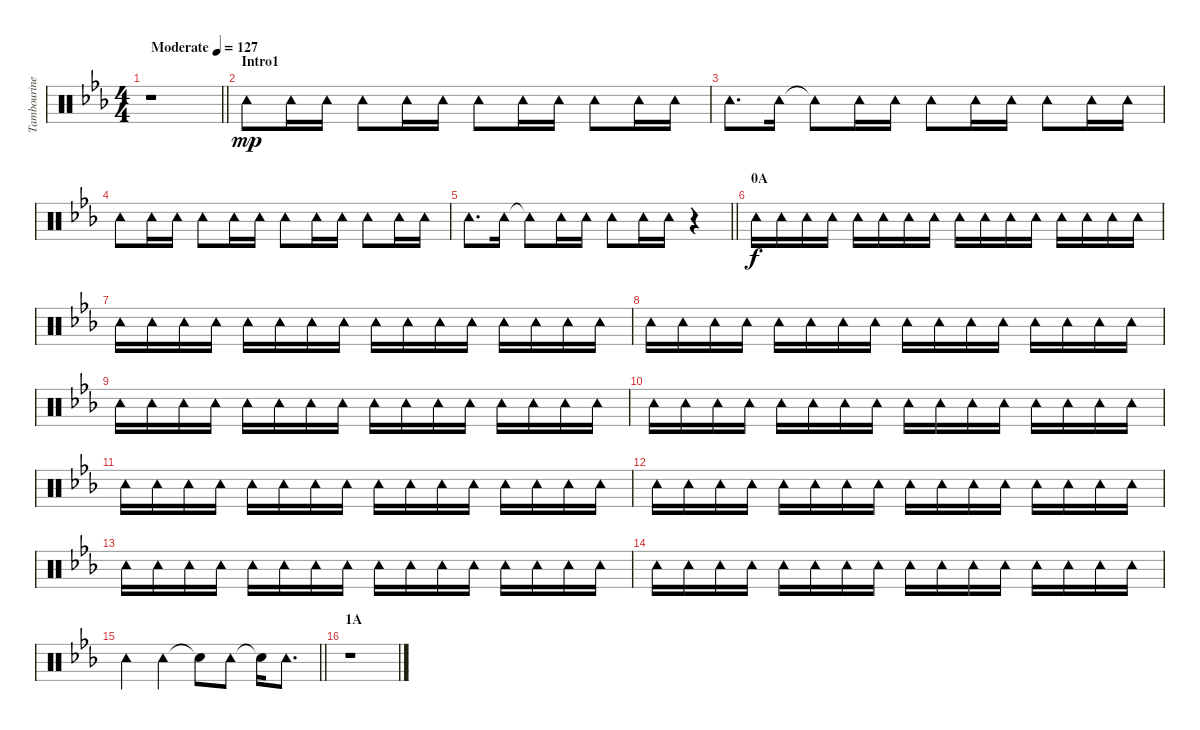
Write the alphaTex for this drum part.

\track ("Tambourine" "Tambourine") {instrument percussion}
\staff {score}
\articulation defaults
\ts (4 4)
\tempo (127 "Moderate")
\clef neutral
\barLineRight lightlight
\ks eb
r.1{dy mp} |
\section ("" "Intro1")
"Tambourine (hit)".8 "Tambourine (hit)".16 "Tambourine (hit)".16 "Tambourine (hit)".8 "Tambourine (hit)".16 "Tambourine (hit)".16 "Tambourine (hit)".8 "Tambourine (hit)".16 "Tambourine (hit)".16 "Tambourine (hit)".8 "Tambourine (hit)".16 "Tambourine (hit)".16 |
"Tambourine (hit)".8{d} "Tambourine (hit)".16 "Tambourine (hit)"{t}.8 "Tambourine (hit)".16 "Tambourine (hit)".16 "Tambourine (hit)".8 "Tambourine (hit)".16 "Tambourine (hit)".16 "Tambourine (hit)".8 "Tambourine (hit)".16 "Tambourine (hit)".16 |
"Tambourine (hit)".8 "Tambourine (hit)".16 "Tambourine (hit)".16 "Tambourine (hit)".8 "Tambourine (hit)".16 "Tambourine (hit)".16 "Tambourine (hit)".8 "Tambourine (hit)".16 "Tambourine (hit)".16 "Tambourine (hit)".8 "Tambourine (hit)".16 "Tambourine (hit)".16 |
\barLineRight lightlight "Tambourine (hit)".8{d} "Tambourine (hit)".16 "Tambourine (hit)"{t}.8 "Tambourine (hit)".16 "Tambourine (hit)".16 "Tambourine (hit)".8 "Tambourine (hit)".16 "Tambourine (hit)".16
r.4 |
\section ("" "0A")
"Tambourine (hit)".16{dy f} "Tambourine (hit)".16 "Tambourine (hit)".16 "Tambourine (hit)".16 "Tambourine (hit)".16 "Tambourine (hit)".16 "Tambourine (hit)".16 "Tambourine (hit)".16 "Tambourine (hit)".16 "Tambourine (hit)".16 "Tambourine (hit)".16 "Tambourine (hit)".16 "Tambourine (hit)".16 "Tambourine (hit)".16 "Tambourine (hit)".16 "Tambourine (hit)".16 |
"Tambourine (hit)".16 "Tambourine (hit)".16 "Tambourine (hit)".16 "Tambourine (hit)".16 "Tambourine (hit)".16 "Tambourine (hit)".16 "Tambourine (hit)".16 "Tambourine (hit)".16 "Tambourine (hit)".16 "Tambourine (hit)".16 "Tambourine (hit)".16 "Tambourine (hit)".16 "Tambourine (hit)".16 "Tambourine (hit)".16 "Tambourine (hit)".16 "Tambourine (hit)".16 |
"Tambourine (hit)".16 "Tambourine (hit)".16 "Tambourine (hit)".16 "Tambourine (hit)".16 "Tambourine (hit)".16 "Tambourine (hit)".16 "Tambourine (hit)".16 "Tambourine (hit)".16 "Tambourine (hit)".16 "Tambourine (hit)".16 "Tambourine (hit)".16 "Tambourine (hit)".16 "Tambourine (hit)".16 "Tambourine (hit)".16 "Tambourine (hit)".16 "Tambourine (hit)".16 |
"Tambourine (hit)".16 "Tambourine (hit)".16 "Tambourine (hit)".16 "Tambourine (hit)".16 "Tambourine (hit)".16 "Tambourine (hit)".16 "Tambourine (hit)".16 "Tambourine (hit)".16 "Tambourine (hit)".16 "Tambourine (hit)".16 "Tambourine (hit)".16 "Tambourine (hit)".16 "Tambourine (hit)".16 "Tambourine (hit)".16 "Tambourine (hit)".16 "Tambourine (hit)".16 |
"Tambourine (hit)".16 "Tambourine (hit)".16 "Tambourine (hit)".16 "Tambourine (hit)".16 "Tambourine (hit)".16 "Tambourine (hit)".16 "Tambourine (hit)".16 "Tambourine (hit)".16 "Tambourine (hit)".16 "Tambourine (hit)".16 "Tambourine (hit)".16 "Tambourine (hit)".16 "Tambourine (hit)".16 "Tambourine (hit)".16 "Tambourine (hit)".16 "Tambourine (hit)".16 |
"Tambourine (hit)".16 "Tambourine (hit)".16 "Tambourine (hit)".16 "Tambourine (hit)".16 "Tambourine (hit)".16 "Tambourine (hit)".16 "Tambourine (hit)".16 "Tambourine (hit)".16 "Tambourine (hit)".16 "Tambourine (hit)".16 "Tambourine (hit)".16 "Tambourine (hit)".16 "Tambourine (hit)".16 "Tambourine (hit)".16 "Tambourine (hit)".16 "Tambourine (hit)".16 |
"Tambourine (hit)".16 "Tambourine (hit)".16 "Tambourine (hit)".16 "Tambourine (hit)".16 "Tambourine (hit)".16 "Tambourine (hit)".16 "Tambourine (hit)".16 "Tambourine (hit)".16 "Tambourine (hit)".16 "Tambourine (hit)".16 "Tambourine (hit)".16 "Tambourine (hit)".16 "Tambourine (hit)".16 "Tambourine (hit)".16 "Tambourine (hit)".16 "Tambourine (hit)".16 |
"Tambourine (hit)".16 "Tambourine (hit)".16 "Tambourine (hit)".16 "Tambourine (hit)".16 "Tambourine (hit)".16 "Tambourine (hit)".16 "Tambourine (hit)".16 "Tambourine (hit)".16 "Tambourine (hit)".16 "Tambourine (hit)".16 "Tambourine (hit)".16 "Tambourine (hit)".16 "Tambourine (hit)".16 "Tambourine (hit)".16 "Tambourine (hit)".16 "Tambourine (hit)".16 |
"Tambourine (hit)".16 "Tambourine (hit)".16 "Tambourine (hit)".16 "Tambourine (hit)".16 "Tambourine (hit)".16 "Tambourine (hit)".16 "Tambourine (hit)".16 "Tambourine (hit)".16 "Tambourine (hit)".16 "Tambourine (hit)".16 "Tambourine (hit)".16 "Tambourine (hit)".16 "Tambourine (hit)".16 "Tambourine (hit)".16 "Tambourine (hit)".16 "Tambourine (hit)".16 |
\barLineRight lightlight "Tambourine (hit)".4 "Tambourine (hit)".4 "Snare (hit)"{t}.8 "Tambourine (hit)".8 "Snare (hit)"{t}.16 "Tambourine (hit)".8{d}
|
\section ("" "1A")
r.1
